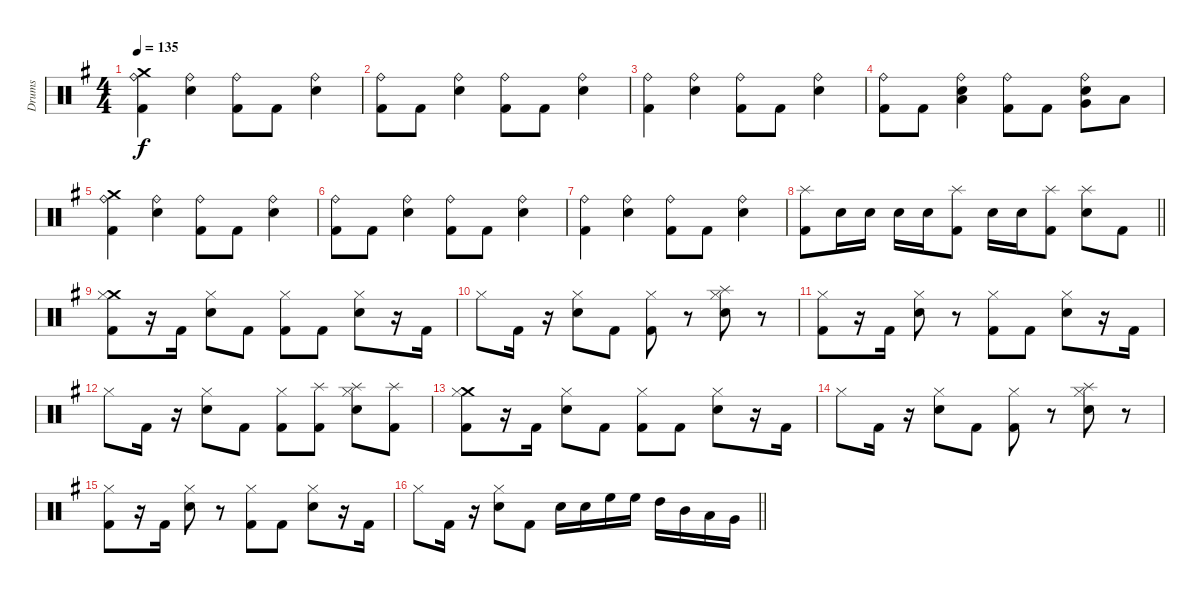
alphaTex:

\track ("Drums" "Drums") {instrument percussion}
\staff {score}
\articulation defaults
\ts (4 4)
\section ("" "")
\tempo 135
\clef neutral
\ks eminor
("Crash medium (hit)" "Ride (bell)" "Kick (hit) 2").4{dy f} ("Ride (bell)" "Electric Snare (hit)").4 ("Ride (bell)" "Kick (hit) 2").8 "Kick (hit) 2".8 ("Ride (bell)" "Electric Snare (hit)").4 |
("Ride (bell)" "Kick (hit) 2").8 "Kick (hit) 2".8 ("Ride (bell)" "Electric Snare (hit)").4 ("Ride (bell)" "Kick (hit) 2").8 "Kick (hit) 2".8 ("Ride (bell)" "Electric Snare (hit)").4 |
("Ride (bell)" "Kick (hit) 2").4 ("Ride (bell)" "Electric Snare (hit)").4 ("Ride (bell)" "Kick (hit) 2").8 "Kick (hit) 2".8 ("Ride (bell)" "Electric Snare (hit)").4 |
("Ride (bell)" "Kick (hit) 2").8 "Kick (hit) 2".8 ("Ride (bell)" "Electric Snare (hit)" "Low Tom (hit)").4 ("Ride (bell)" "Kick (hit) 2").8 "Kick (hit) 2".8 ("Ride (bell)" "Electric Snare (hit)" "Very Low Tom (hit)").8 "Low Floor Tom (hit)".8 |
("Crash medium (hit)" "Ride (bell)" "Kick (hit) 2").4 ("Ride (bell)" "Electric Snare (hit)").4 ("Ride (bell)" "Kick (hit) 2").8 "Kick (hit) 2".8 ("Ride (bell)" "Electric Snare (hit)").4 |
("Ride (bell)" "Kick (hit) 2").8 "Kick (hit) 2".8 ("Ride (bell)" "Electric Snare (hit)").4 ("Ride (bell)" "Kick (hit) 2").8 "Kick (hit) 2".8 ("Ride (bell)" "Electric Snare (hit)").4 |
("Ride (bell)" "Kick (hit) 2").4 ("Ride (bell)" "Electric Snare (hit)").4 ("Ride (bell)" "Kick (hit) 2").8 "Kick (hit) 2".8 ("Ride (bell)" "Electric Snare (hit)").4 |
\barLineRight lightlight
("Splash (hit)" "Kick (hit) 2").8 "Electric Snare (hit)".16 "Electric Snare (hit)".16 "Electric Snare (hit)".16 "Electric Snare (hit)".16 ("Splash (hit)" "Kick (hit) 2").8 "Electric Snare (hit)".16 "Electric Snare (hit)".16 ("Splash (hit)" "Kick (hit) 2").8 ("Splash (hit)" "Electric Snare (hit)").8 "Kick (hit) 2".8 |
\section ("" "")
("Crash medium (hit)" "Hi-Hat (closed)" "Kick (hit) 2").8 r.16 "Kick (hit) 2".16 ("Hi-Hat (closed)" "Electric Snare (hit)").8 "Kick (hit) 2".8 ("Hi-Hat (closed)" "Kick (hit) 2").8 "Kick (hit) 2".8 ("Hi-Hat (closed)" "Electric Snare (hit)").8 r.16 "Kick (hit) 2".16 |
"Hi-Hat (closed)".8 "Kick (hit) 2".16 r.16 ("Hi-Hat (closed)" "Electric Snare (hit)").8 "Kick (hit) 2".8 ("Hi-Hat (closed)" "Kick (hit) 2").8 r.8 ("Splash (hit)" "Hi-Hat (closed)" "Electric Snare (hit)").8 r.8 |
("Hi-Hat (closed)" "Kick (hit) 2").8 r.16 "Kick (hit) 2".16 ("Hi-Hat (closed)" "Electric Snare (hit)").8 r.8 ("Hi-Hat (closed)" "Kick (hit) 2").8 "Kick (hit) 2".8 ("Hi-Hat (closed)" "Electric Snare (hit)").8 r.16 "Kick (hit) 2".16 |
"Hi-Hat (closed)".8 "Kick (hit) 2".16 r.16 ("Hi-Hat (closed)" "Electric Snare (hit)").8 "Kick (hit) 2".8 ("Hi-Hat (closed)" "Kick (hit) 2").8 ("Splash (hit)" "Kick (hit) 2").8 ("Splash (hit)" "Hi-Hat (closed)" "Electric Snare (hit)").8 ("Splash (hit)" "Kick (hit) 2").8 |
("Crash medium (hit)" "Hi-Hat (closed)" "Kick (hit) 2").8 r.16 "Kick (hit) 2".16 ("Hi-Hat (closed)" "Electric Snare (hit)").8 "Kick (hit) 2".8 ("Hi-Hat (closed)" "Kick (hit) 2").8 "Kick (hit) 2".8 ("Hi-Hat (closed)" "Electric Snare (hit)").8 r.16 "Kick (hit) 2".16 |
"Hi-Hat (closed)".8 "Kick (hit) 2".16 r.16 ("Hi-Hat (closed)" "Electric Snare (hit)").8 "Kick (hit) 2".8 ("Hi-Hat (closed)" "Kick (hit) 2").8 r.8 ("Splash (hit)" "Hi-Hat (closed)" "Electric Snare (hit)").8 r.8 |
("Hi-Hat (closed)" "Kick (hit) 2").8 r.16 "Kick (hit) 2".16 ("Hi-Hat (closed)" "Electric Snare (hit)").8 r.8 ("Hi-Hat (closed)" "Kick (hit) 2").8 "Kick (hit) 2".8 ("Hi-Hat (closed)" "Electric Snare (hit)").8 r.16 "Kick (hit) 2".16 |
\barLineRight lightlight "Hi-Hat (closed)".8 "Kick (hit) 2".16
r.16 ("Hi-Hat (closed)" "Electric Snare (hit)").8 "Kick (hit) 2".8 "Electric Snare (hit)".16 "Electric Snare (hit)".16 "High Floor Tom (hit)".16 "High Floor Tom (hit)".16 "High Tom (hit)".16 "Mid Tom (hit)".16 "Low Tom (hit)".16 "Very Low Tom (hit)".16
